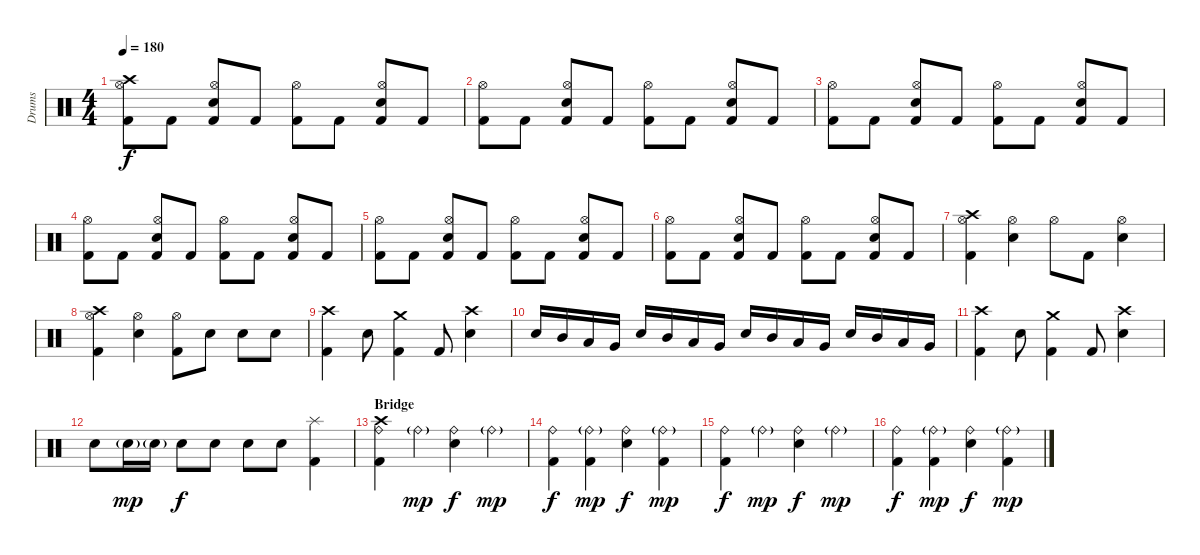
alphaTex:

\track ("Drums" "Drums") {instrument percussion}
\staff {score}
\articulation defaults
\ts (4 4)
\tempo 180
\clef neutral
\ks c
("Kick (hit) 2" "Crash high (hit)" "Hi-Hat (open)").8{dy f} "Kick (hit) 2".8 ("Kick (hit) 2" "Electric Snare (hit)" "Hi-Hat (open)").8 "Kick (hit) 2".8 ("Kick (hit) 2" "Hi-Hat (open)").8 "Kick (hit) 2".8 ("Kick (hit) 2" "Electric Snare (hit)" "Hi-Hat (open)").8 "Kick (hit) 2".8 |
("Kick (hit) 2" "Hi-Hat (open)").8 "Kick (hit) 2".8 ("Kick (hit) 2" "Electric Snare (hit)" "Hi-Hat (open)").8 "Kick (hit) 2".8 ("Kick (hit) 2" "Hi-Hat (open)").8 "Kick (hit) 2".8 ("Kick (hit) 2" "Electric Snare (hit)" "Hi-Hat (open)").8 "Kick (hit) 2".8 |
("Kick (hit) 2" "Hi-Hat (open)").8 "Kick (hit) 2".8 ("Kick (hit) 2" "Electric Snare (hit)" "Hi-Hat (open)").8 "Kick (hit) 2".8 ("Kick (hit) 2" "Hi-Hat (open)").8 "Kick (hit) 2".8 ("Kick (hit) 2" "Electric Snare (hit)" "Hi-Hat (open)").8 "Kick (hit) 2".8 |
("Kick (hit) 2" "Hi-Hat (open)").8 "Kick (hit) 2".8 ("Kick (hit) 2" "Electric Snare (hit)" "Hi-Hat (open)").8 "Kick (hit) 2".8 ("Kick (hit) 2" "Hi-Hat (open)").8 "Kick (hit) 2".8 ("Kick (hit) 2" "Electric Snare (hit)" "Hi-Hat (open)").8 "Kick (hit) 2".8 |
("Kick (hit) 2" "Hi-Hat (open)").8 "Kick (hit) 2".8 ("Kick (hit) 2" "Electric Snare (hit)" "Hi-Hat (open)").8 "Kick (hit) 2".8 ("Kick (hit) 2" "Hi-Hat (open)").8 "Kick (hit) 2".8 ("Kick (hit) 2" "Electric Snare (hit)" "Hi-Hat (open)").8 "Kick (hit) 2".8 |
("Kick (hit) 2" "Hi-Hat (open)").8 "Kick (hit) 2".8 ("Kick (hit) 2" "Electric Snare (hit)" "Hi-Hat (open)").8 "Kick (hit) 2".8 ("Kick (hit) 2" "Hi-Hat (open)").8 "Kick (hit) 2".8 ("Kick (hit) 2" "Electric Snare (hit)" "Hi-Hat (open)").8 "Kick (hit) 2".8 |
("Hi-Hat (open)" "Kick (hit) 2" "Crash high (hit)").4 ("Hi-Hat (open)" "Electric Snare (hit)").4 "Hi-Hat (open)".8 "Kick (hit) 2".8 ("Hi-Hat (open)" "Electric Snare (hit)").4 |
("Hi-Hat (open)" "Kick (hit) 2" "Crash high (hit)").4 ("Hi-Hat (open)" "Electric Snare (hit)").4 ("Hi-Hat (open)" "Kick (hit) 2").8 "Electric Snare (hit)".8 "Electric Snare (hit)".8 "Electric Snare (hit)".8 |
("Kick (hit) 2" "Crash high (hit)").4 "Electric Snare (hit)".8 ("Kick (hit) 2" "Crash medium (hit)").4 "Kick (hit) 2".8 ("Electric Snare (hit)" "Crash high (hit)").4 |
"Electric Snare (hit)".16 "Mid Tom (hit)".16 "Low Tom (hit)".16 "Very Low Tom (hit)".16 "Electric Snare (hit)".16 "Mid Tom (hit)".16 "Low Tom (hit)".16 "Very Low Tom (hit)".16 "Electric Snare (hit)".16 "Mid Tom (hit)".16 "Low Tom (hit)".16 "Very Low Tom (hit)".16 "Electric Snare (hit)".16 "Mid Tom (hit)".16 "Low Tom (hit)".16 "Very Low Tom (hit)".16 |
("Kick (hit) 2" "Crash high (hit)").4 "Electric Snare (hit)".8 ("Kick (hit) 2" "Crash medium (hit)").4 "Kick (hit) 2".8 ("Electric Snare (hit)" "Crash high (hit)").4 |
"Electric Snare (hit)".8 "Electric Snare (hit)"{g}.16{dy mp} "Electric Snare (hit)"{g}.16 "Electric Snare (hit)".8{dy f} "Electric Snare (hit)".8 "Electric Snare (hit)".8 "Electric Snare (hit)".8 ("Splash (hit)" "Kick (hit) 2").4 |
\section ("" "Bridge")
("Ride (bell)" "Kick (hit) 2" "Crash high (hit)").4 "Ride (bell)"{g}.4{dy mp} ("Ride (bell)" "Electric Snare (hit)").4{dy f} "Ride (bell)"{g}.4{dy mp} |
("Ride (bell)" "Kick (hit) 2").4{dy f} ("Ride (bell)"{g} "Kick (hit) 2").4{dy mp} ("Ride (bell)" "Electric Snare (hit)").4{dy f} ("Ride (bell)"{g} "Kick (hit) 2").4{dy mp} |
("Ride (bell)" "Kick (hit) 2").4{dy f} "Ride (bell)"{g}.4{dy mp} ("Ride (bell)" "Electric Snare (hit)").4{dy f} "Ride (bell)"{g}.4{dy mp} |
("Ride (bell)" "Kick (hit) 2").4{dy f} ("Ride (bell)"{g} "Kick (hit) 2").4{dy mp} ("Ride (bell)" "Electric Snare (hit)").4{dy f} ("Ride (bell)"{g} "Kick (hit) 2").4{dy mp}
